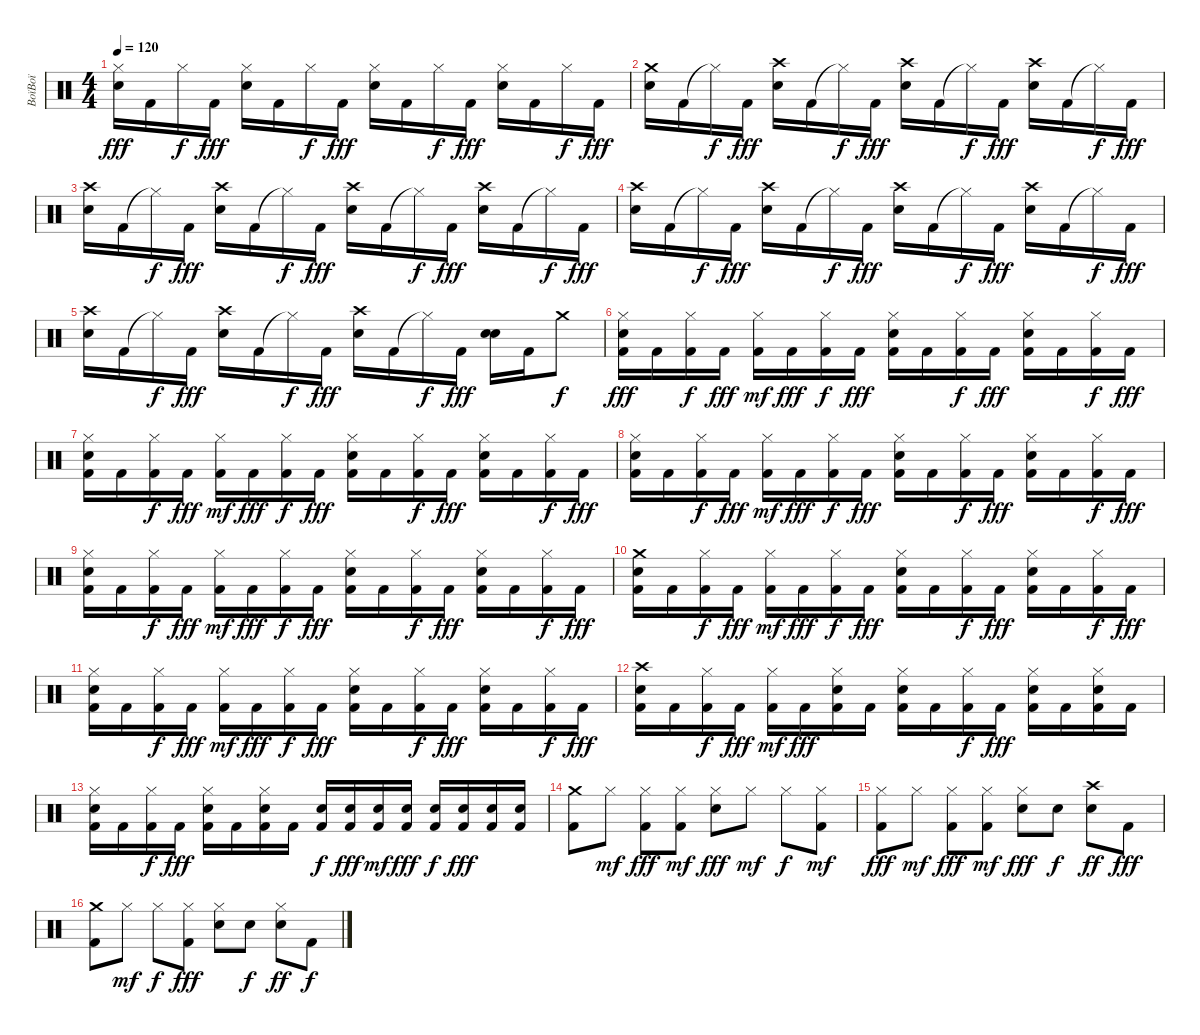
\track ("BoïBoï" "BoïBoï") {instrument percussion}
\staff {score}
\articulation defaults
\ts (4 4)
\tempo 120
\clef neutral
\ks c
("Hi-Hat (closed)" "Electric Snare (hit)").16{dy fff} "Kick (hit) 2".16 "Hi-Hat (closed)".16{dy f} "Kick (hit) 2".16{dy fff} ("Hi-Hat (closed)" "Electric Snare (hit)").16 "Kick (hit) 2".16 "Hi-Hat (closed)".16{dy f} "Kick (hit) 2".16{dy fff} ("Hi-Hat (closed)" "Electric Snare (hit)").16 "Kick (hit) 2".16 "Hi-Hat (closed)".16{dy f} "Kick (hit) 2".16{dy fff} ("Hi-Hat (closed)" "Electric Snare (hit)").16 "Kick (hit) 2".16 "Hi-Hat (closed)".16{dy f} "Kick (hit) 2".16{dy fff} |
("Crash medium (hit)" "Electric Snare (hit)").16 "Kick (hit) 2".16 "Hi-Hat (closed)"{t}.16{dy f} "Kick (hit) 2".16{dy fff} ("Crash high (hit)" "Electric Snare (hit)").16 "Kick (hit) 2".16 "Hi-Hat (closed)"{t}.16{dy f} "Kick (hit) 2".16{dy fff} ("Crash high (hit)" "Electric Snare (hit)").16 "Kick (hit) 2".16 "Hi-Hat (closed)"{t}.16{dy f} "Kick (hit) 2".16{dy fff} ("Crash high (hit)" "Electric Snare (hit)").16 "Kick (hit) 2".16 "Hi-Hat (closed)"{t}.16{dy f} "Kick (hit) 2".16{dy fff} |
("Crash high (hit)" "Electric Snare (hit)").16 "Kick (hit) 2".16 "Hi-Hat (closed)"{t}.16{dy f} "Kick (hit) 2".16{dy fff} ("Crash high (hit)" "Electric Snare (hit)").16 "Kick (hit) 2".16 "Hi-Hat (closed)"{t}.16{dy f} "Kick (hit) 2".16{dy fff} ("Crash high (hit)" "Electric Snare (hit)").16 "Kick (hit) 2".16 "Hi-Hat (closed)"{t}.16{dy f} "Kick (hit) 2".16{dy fff} ("Crash high (hit)" "Electric Snare (hit)").16 "Kick (hit) 2".16 "Hi-Hat (closed)"{t}.16{dy f} "Kick (hit) 2".16{dy fff} |
("Crash high (hit)" "Electric Snare (hit)").16 "Kick (hit) 2".16 "Hi-Hat (closed)"{t}.16{dy f} "Kick (hit) 2".16{dy fff} ("Crash high (hit)" "Electric Snare (hit)").16 "Kick (hit) 2".16 "Hi-Hat (closed)"{t}.16{dy f} "Kick (hit) 2".16{dy fff} ("Crash high (hit)" "Electric Snare (hit)").16 "Kick (hit) 2".16 "Hi-Hat (closed)"{t}.16{dy f} "Kick (hit) 2".16{dy fff} ("Crash high (hit)" "Electric Snare (hit)").16 "Kick (hit) 2".16 "Hi-Hat (closed)"{t}.16{dy f} "Kick (hit) 2".16{dy fff} |
("Crash high (hit)" "Electric Snare (hit)").16 "Kick (hit) 2".16 "Hi-Hat (closed)"{t}.16{dy f} "Kick (hit) 2".16{dy fff} ("Crash high (hit)" "Electric Snare (hit)").16 "Kick (hit) 2".16 "Hi-Hat (closed)"{t}.16{dy f} "Kick (hit) 2".16{dy fff} ("Crash high (hit)" "Electric Snare (hit)").16 "Kick (hit) 2".16 "Hi-Hat (closed)"{t}.16{dy f} "Kick (hit) 2".16{dy fff} ("Electric Snare (hit)" "Snare (hit) 2").16 "Kick (hit) 2".16 "Crash medium (hit)".8{dy f} |
("Hi-Hat (closed)" "Electric Snare (hit)" "Kick (hit) 2").16{dy fff} "Kick (hit) 2".16 ("Hi-Hat (closed)" "Kick (hit) 2").16{dy f} "Kick (hit) 2".16{dy fff} ("Hi-Hat (closed)" "Kick (hit) 2").16{dy mf} "Kick (hit) 2".16{dy fff} ("Hi-Hat (closed)" "Kick (hit) 2").16{dy f} "Kick (hit) 2".16{dy fff} ("Hi-Hat (closed)" "Electric Snare (hit)" "Kick (hit) 2").16 "Kick (hit) 2".16 ("Hi-Hat (closed)" "Kick (hit) 2").16{dy f} "Kick (hit) 2".16{dy fff} ("Hi-Hat (closed)" "Electric Snare (hit)" "Kick (hit) 2").16 "Kick (hit) 2".16 ("Hi-Hat (closed)" "Kick (hit) 2").16{dy f} "Kick (hit) 2".16{dy fff} |
("Hi-Hat (closed)" "Electric Snare (hit)" "Kick (hit) 2").16 "Kick (hit) 2".16 ("Hi-Hat (closed)" "Kick (hit) 2").16{dy f} "Kick (hit) 2".16{dy fff} ("Hi-Hat (closed)" "Kick (hit) 2").16{dy mf} "Kick (hit) 2".16{dy fff} ("Hi-Hat (closed)" "Kick (hit) 2").16{dy f} "Kick (hit) 2".16{dy fff} ("Hi-Hat (closed)" "Electric Snare (hit)" "Kick (hit) 2").16 "Kick (hit) 2".16 ("Hi-Hat (closed)" "Kick (hit) 2").16{dy f} "Kick (hit) 2".16{dy fff} ("Hi-Hat (closed)" "Electric Snare (hit)" "Kick (hit) 2").16 "Kick (hit) 2".16 ("Hi-Hat (closed)" "Kick (hit) 2").16{dy f} "Kick (hit) 2".16{dy fff} |
("Hi-Hat (closed)" "Electric Snare (hit)" "Kick (hit) 2").16 "Kick (hit) 2".16 ("Hi-Hat (closed)" "Kick (hit) 2").16{dy f} "Kick (hit) 2".16{dy fff} ("Hi-Hat (closed)" "Kick (hit) 2").16{dy mf} "Kick (hit) 2".16{dy fff} ("Hi-Hat (closed)" "Kick (hit) 2").16{dy f} "Kick (hit) 2".16{dy fff} ("Hi-Hat (closed)" "Electric Snare (hit)" "Kick (hit) 2").16 "Kick (hit) 2".16 ("Hi-Hat (closed)" "Kick (hit) 2").16{dy f} "Kick (hit) 2".16{dy fff} ("Hi-Hat (closed)" "Electric Snare (hit)" "Kick (hit) 2").16 "Kick (hit) 2".16 ("Hi-Hat (closed)" "Kick (hit) 2").16{dy f} "Kick (hit) 2".16{dy fff} |
("Hi-Hat (closed)" "Electric Snare (hit)" "Kick (hit) 2").16 "Kick (hit) 2".16 ("Hi-Hat (closed)" "Kick (hit) 2").16{dy f} "Kick (hit) 2".16{dy fff} ("Hi-Hat (closed)" "Kick (hit) 2").16{dy mf} "Kick (hit) 2".16{dy fff} ("Hi-Hat (closed)" "Kick (hit) 2").16{dy f} "Kick (hit) 2".16{dy fff} ("Hi-Hat (closed)" "Electric Snare (hit)" "Kick (hit) 2").16 "Kick (hit) 2".16 ("Hi-Hat (closed)" "Kick (hit) 2").16{dy f} "Kick (hit) 2".16{dy fff} ("Hi-Hat (closed)" "Electric Snare (hit)" "Kick (hit) 2").16 "Kick (hit) 2".16 ("Hi-Hat (closed)" "Kick (hit) 2").16{dy f} "Kick (hit) 2".16{dy fff} |
("Crash medium (hit)" "Electric Snare (hit)" "Kick (hit) 2").16 "Kick (hit) 2".16 ("Hi-Hat (closed)" "Kick (hit) 2").16{dy f} "Kick (hit) 2".16{dy fff} ("Hi-Hat (closed)" "Kick (hit) 2").16{dy mf} "Kick (hit) 2".16{dy fff} ("Hi-Hat (closed)" "Kick (hit) 2").16{dy f} "Kick (hit) 2".16{dy fff} ("Hi-Hat (closed)" "Electric Snare (hit)" "Kick (hit) 2").16 "Kick (hit) 2".16 ("Hi-Hat (closed)" "Kick (hit) 2").16{dy f} "Kick (hit) 2".16{dy fff} ("Hi-Hat (closed)" "Electric Snare (hit)" "Kick (hit) 2").16 "Kick (hit) 2".16 ("Hi-Hat (closed)" "Kick (hit) 2").16{dy f} "Kick (hit) 2".16{dy fff} |
("Hi-Hat (closed)" "Electric Snare (hit)" "Kick (hit) 2").16 "Kick (hit) 2".16 ("Hi-Hat (closed)" "Kick (hit) 2").16{dy f} "Kick (hit) 2".16{dy fff} ("Hi-Hat (closed)" "Kick (hit) 2").16{dy mf} "Kick (hit) 2".16{dy fff} ("Hi-Hat (closed)" "Kick (hit) 2").16{dy f} "Kick (hit) 2".16{dy fff} ("Hi-Hat (closed)" "Electric Snare (hit)" "Kick (hit) 2").16 "Kick (hit) 2".16 ("Hi-Hat (closed)" "Kick (hit) 2").16{dy f} "Kick (hit) 2".16{dy fff} ("Hi-Hat (closed)" "Electric Snare (hit)" "Kick (hit) 2").16 "Kick (hit) 2".16 ("Hi-Hat (closed)" "Kick (hit) 2").16{dy f} "Kick (hit) 2".16{dy fff} |
("Crash high (hit)" "Electric Snare (hit)" "Kick (hit) 2").16 "Kick (hit) 2".16 ("Hi-Hat (closed)" "Kick (hit) 2").16{dy f} "Kick (hit) 2".16{dy fff} ("Hi-Hat (closed)" "Kick (hit) 2").16{dy mf} "Kick (hit) 2".16{dy fff} ("Hi-Hat (closed)" "Electric Snare (hit)" "Kick (hit) 2").16 "Kick (hit) 2".16 ("Hi-Hat (closed)" "Electric Snare (hit)" "Kick (hit) 2").16 "Kick (hit) 2".16 ("Hi-Hat (closed)" "Kick (hit) 2").16{dy f} "Kick (hit) 2".16{dy fff} ("Hi-Hat (closed)" "Electric Snare (hit)" "Kick (hit) 2").16 "Kick (hit) 2".16 ("Hi-Hat (closed)" "Electric Snare (hit)" "Kick (hit) 2").16 "Kick (hit) 2".16 |
("Hi-Hat (closed)" "Electric Snare (hit)" "Kick (hit) 2").16 "Kick (hit) 2".16 ("Hi-Hat (closed)" "Kick (hit) 2").16{dy f} "Kick (hit) 2".16{dy fff} ("Hi-Hat (closed)" "Electric Snare (hit)" "Kick (hit) 2").16 "Kick (hit) 2".16 ("Hi-Hat (closed)" "Electric Snare (hit)" "Kick (hit) 2").16 "Kick (hit) 2".16 ("Electric Snare (hit)" "Kick (hit) 2").16{dy f} ("Electric Snare (hit)" "Kick (hit) 2").16{dy fff} ("Electric Snare (hit)" "Kick (hit) 2").16{dy mf} ("Electric Snare (hit)" "Kick (hit) 2").16{dy fff} ("Electric Snare (hit)" "Kick (hit) 2").16{dy f} ("Electric Snare (hit)" "Kick (hit) 2").16{dy fff} ("Electric Snare (hit)" "Kick (hit) 2").16 ("Electric Snare (hit)" "Kick (hit) 2").16 |
("Crash medium (hit)" "Kick (hit) 2").8 "Hi-Hat (closed)".8{dy mf} ("Hi-Hat (closed)" "Kick (hit) 2").8{dy fff} ("Hi-Hat (closed)" "Kick (hit) 2").8{dy mf} ("Hi-Hat (closed)" "Electric Snare (hit)").8{dy fff} "Hi-Hat (closed)".8{dy mf} "Hi-Hat (closed)".8{dy f} ("Hi-Hat (closed)" "Kick (hit) 2").8{dy mf} |
("Hi-Hat (closed)" "Kick (hit) 2").8{dy fff} "Hi-Hat (closed)".8{dy mf} ("Hi-Hat (closed)" "Kick (hit) 2").8{dy fff} ("Hi-Hat (closed)" "Kick (hit) 2").8{dy mf} ("Hi-Hat (closed)" "Electric Snare (hit)").8{dy fff} "Electric Snare (hit)".8{dy f} ("Crash high (hit)" "Electric Snare (hit)").8{dy ff} "Kick (hit) 2".8{dy fff} |
("Crash medium (hit)" "Kick (hit) 2").8 "Hi-Hat (closed)".8{dy mf} "Hi-Hat (closed)".8{dy f} ("Hi-Hat (closed)" "Kick (hit) 2").8{dy fff} ("Hi-Hat (closed)" "Electric Snare (hit)").8 "Electric Snare (hit)".8{dy f} ("Hi-Hat (closed)" "Electric Snare (hit)").8{dy ff} "Kick (hit) 2".8{dy f}
